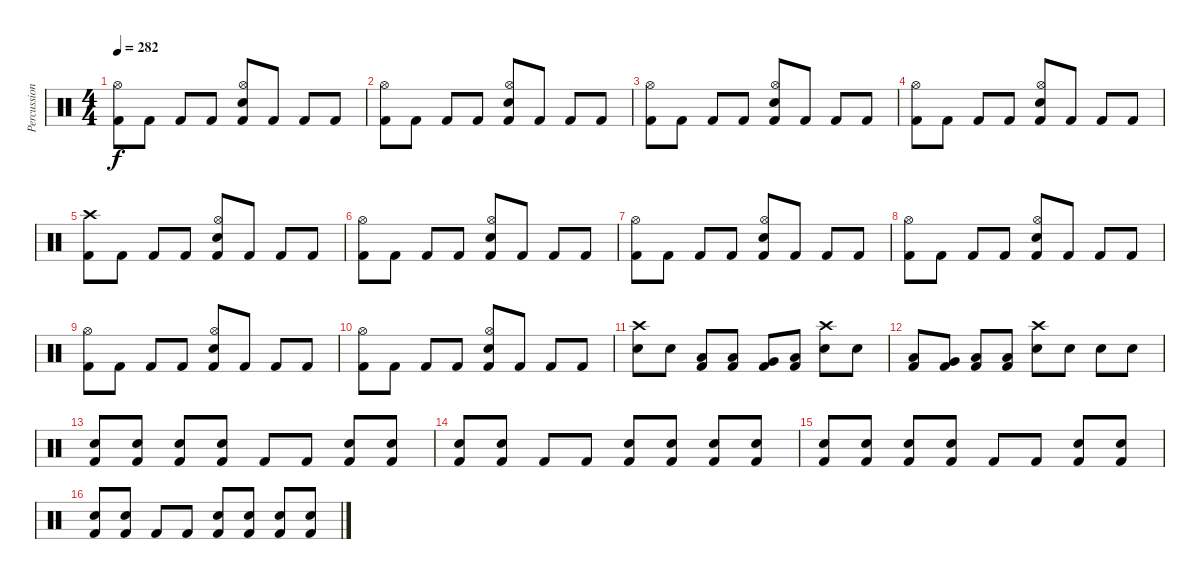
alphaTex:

\track ("Percussion" "Percussion") {instrument percussion}
\staff {score}
\articulation defaults
\ts (4 4)
\tempo 282
\clef neutral
\ks c
("Kick (hit) 2" "Hi-Hat (open)").8{dy f} "Kick (hit) 2".8 "Kick (hit) 2".8 "Kick (hit) 2".8 ("Kick (hit) 2" "Snare (hit) 2" "Hi-Hat (open)").8 "Kick (hit) 2".8 "Kick (hit) 2".8 "Kick (hit) 2".8 |
("Kick (hit) 2" "Hi-Hat (open)").8 "Kick (hit) 2".8 "Kick (hit) 2".8 "Kick (hit) 2".8 ("Kick (hit) 2" "Snare (hit) 2" "Hi-Hat (open)").8 "Kick (hit) 2".8 "Kick (hit) 2".8 "Kick (hit) 2".8 |
("Kick (hit) 2" "Hi-Hat (open)").8 "Kick (hit) 2".8 "Kick (hit) 2".8 "Kick (hit) 2".8 ("Kick (hit) 2" "Snare (hit) 2" "Hi-Hat (open)").8 "Kick (hit) 2".8 "Kick (hit) 2".8 "Kick (hit) 2".8 |
("Kick (hit) 2" "Hi-Hat (open)").8 "Kick (hit) 2".8 "Kick (hit) 2".8 "Kick (hit) 2".8 ("Kick (hit) 2" "Snare (hit) 2" "Hi-Hat (open)").8 "Kick (hit) 2".8 "Kick (hit) 2".8 "Kick (hit) 2".8 |
("Kick (hit) 2" "Crash high (hit)").8 "Kick (hit) 2".8 "Kick (hit) 2".8 "Kick (hit) 2".8 ("Kick (hit) 2" "Snare (hit) 2" "Hi-Hat (open)").8 "Kick (hit) 2".8 "Kick (hit) 2".8 "Kick (hit) 2".8 |
("Kick (hit) 2" "Hi-Hat (open)").8 "Kick (hit) 2".8 "Kick (hit) 2".8 "Kick (hit) 2".8 ("Kick (hit) 2" "Snare (hit) 2" "Hi-Hat (open)").8 "Kick (hit) 2".8 "Kick (hit) 2".8 "Kick (hit) 2".8 |
("Kick (hit) 2" "Hi-Hat (open)").8 "Kick (hit) 2".8 "Kick (hit) 2".8 "Kick (hit) 2".8 ("Kick (hit) 2" "Snare (hit) 2" "Hi-Hat (open)").8 "Kick (hit) 2".8 "Kick (hit) 2".8 "Kick (hit) 2".8 |
("Kick (hit) 2" "Hi-Hat (open)").8 "Kick (hit) 2".8 "Kick (hit) 2".8 "Kick (hit) 2".8 ("Kick (hit) 2" "Snare (hit) 2" "Hi-Hat (open)").8 "Kick (hit) 2".8 "Kick (hit) 2".8 "Kick (hit) 2".8 |
("Kick (hit) 2" "Hi-Hat (open)").8 "Kick (hit) 2".8 "Kick (hit) 2".8 "Kick (hit) 2".8 ("Kick (hit) 2" "Snare (hit) 2" "Hi-Hat (open)").8 "Kick (hit) 2".8 "Kick (hit) 2".8 "Kick (hit) 2".8 |
("Kick (hit) 2" "Hi-Hat (open)").8 "Kick (hit) 2".8 "Kick (hit) 2".8 "Kick (hit) 2".8 ("Kick (hit) 2" "Snare (hit) 2" "Hi-Hat (open)").8 "Kick (hit) 2".8 "Kick (hit) 2".8 "Kick (hit) 2".8 |
("Snare (hit) 2" "Crash high (hit)").8 "Snare (hit)"{x}.8 ("Kick (hit) 2" "Low Floor Tom (hit)").8 ("Kick (hit) 2" "Low Floor Tom (hit)").8 ("Kick (hit) 2" "Very Low Tom (hit)").8 ("Kick (hit) 2" "Low Floor Tom (hit)").8 ("Snare (hit) 2" "Crash high (hit)").8 "Snare (hit)"{x}.8 |
("Kick (hit) 2" "Low Tom (hit)").8 ("Kick (hit) 2" "Very Low Tom (hit)").8 ("Kick (hit) 2" "Low Floor Tom (hit)").8 ("Kick (hit) 2" "Low Tom (hit)").8 ("Snare (hit) 2" "Crash high (hit)").8 "Snare (hit)"{x}.8 "Snare (hit)"{x}.8 "Snare (hit)"{x}.8 |
("Kick (hit) 2" "Snare (hit) 2").8 ("Kick (hit) 2" "Snare (hit) 2").8 ("Kick (hit) 2" "Snare (hit) 2").8 ("Kick (hit) 2" "Snare (hit) 2").8 "Kick (hit) 2".8 "Kick (hit) 2".8 ("Kick (hit) 2" "Snare (hit) 2").8 ("Kick (hit) 2" "Snare (hit) 2").8 |
("Kick (hit) 2" "Snare (hit) 2").8 ("Kick (hit) 2" "Snare (hit) 2").8 "Kick (hit) 2".8 "Kick (hit) 2".8 ("Kick (hit) 2" "Snare (hit) 2").8 ("Kick (hit) 2" "Snare (hit) 2").8 ("Kick (hit) 2" "Snare (hit) 2").8 ("Kick (hit) 2" "Snare (hit) 2").8 |
("Kick (hit) 2" "Snare (hit) 2").8 ("Kick (hit) 2" "Snare (hit) 2").8 ("Kick (hit) 2" "Snare (hit) 2").8 ("Kick (hit) 2" "Snare (hit) 2").8 "Kick (hit) 2".8 "Kick (hit) 2".8 ("Kick (hit) 2" "Snare (hit) 2").8 ("Kick (hit) 2" "Snare (hit) 2").8 |
("Kick (hit) 2" "Snare (hit) 2").8 ("Kick (hit) 2" "Snare (hit) 2").8 "Kick (hit) 2".8 "Kick (hit) 2".8 ("Kick (hit) 2" "Snare (hit) 2").8 ("Kick (hit) 2" "Snare (hit) 2").8 ("Kick (hit) 2" "Snare (hit) 2").8 ("Kick (hit) 2" "Snare (hit) 2").8
